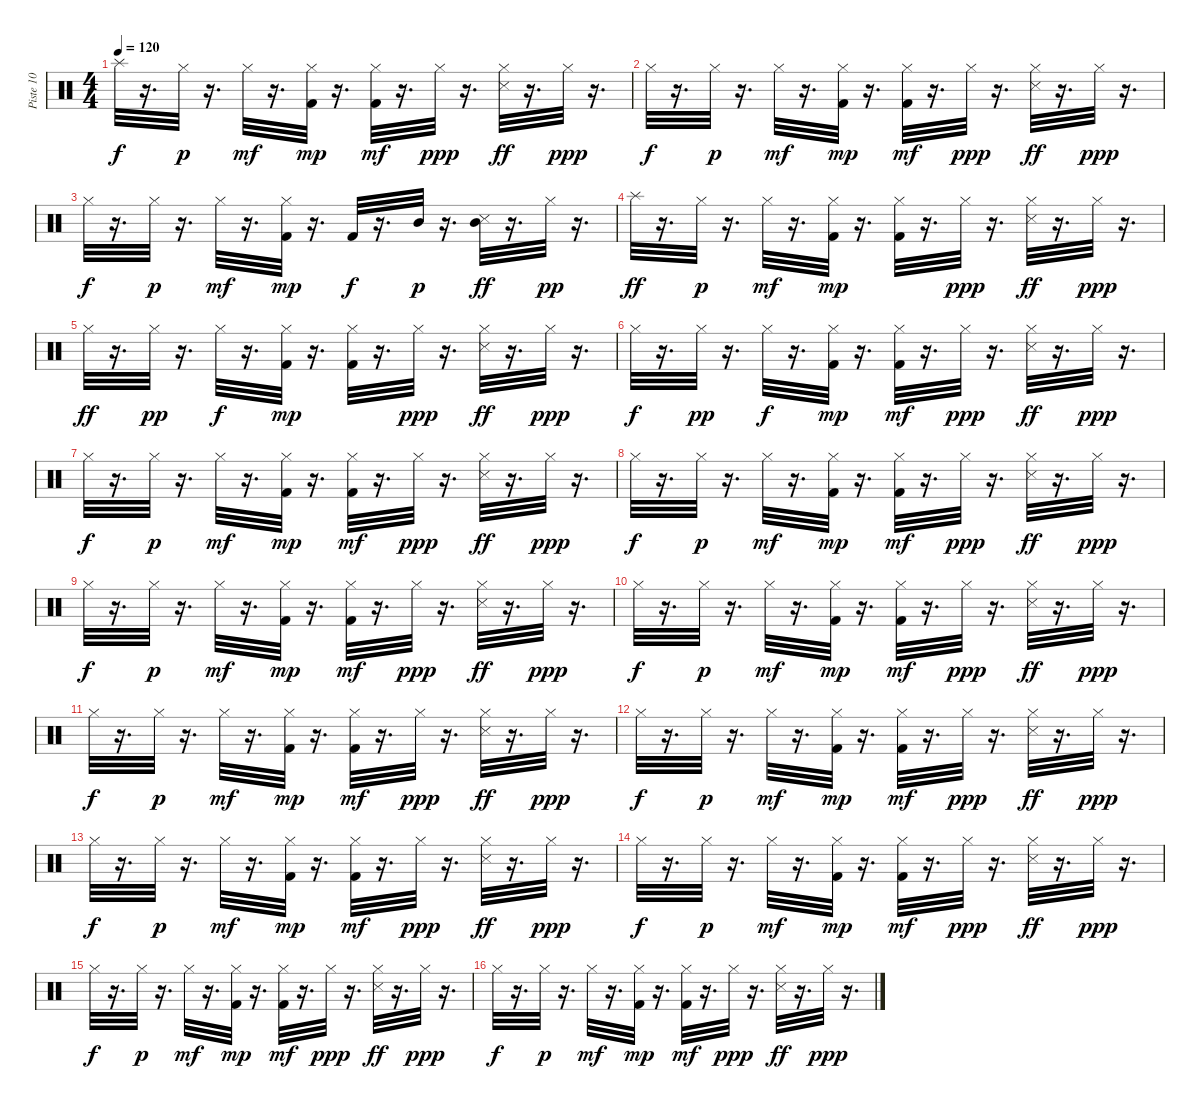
\track ("Piste 10" "Piste 10") {instrument percussion}
\staff {score}
\articulation defaults
\ts (4 4)
\tempo 120
\clef neutral
\ks c "Splash (hit)".32{dy f}
r.16{d} "Hi-Hat (closed)".32{dy p} r.16{d} "Hi-Hat (closed)".32{dy mf} r.16{d} ("Hi-Hat (closed)" "Kick (hit) 2").32{dy mp} r.16{d} ("Hi-Hat (closed)" "Kick (hit) 2").32{dy mf} r.16{d} "Hi-Hat (closed)".32{dy ppp} r.16{d} ("Hi-Hat (closed)" "Snare (side stick) 3").32{dy ff} r.16{d} "Hi-Hat (closed)".32{dy ppp} r.16{d} |
"Hi-Hat (closed)".32{dy f} r.16{d} "Hi-Hat (closed)".32{dy p} r.16{d} "Hi-Hat (closed)".32{dy mf} r.16{d} ("Hi-Hat (closed)" "Kick (hit) 2").32{dy mp} r.16{d} ("Hi-Hat (closed)" "Kick (hit) 2").32{dy mf} r.16{d} "Hi-Hat (closed)".32{dy ppp} r.16{d} ("Hi-Hat (closed)" "Snare (side stick) 3").32{dy ff} r.16{d} "Hi-Hat (closed)".32{dy ppp} r.16{d} |
"Hi-Hat (closed)".32{dy f} r.16{d} "Hi-Hat (closed)".32{dy p} r.16{d} "Hi-Hat (closed)".32{dy mf} r.16{d} ("Hi-Hat (closed)" "Kick (hit) 2").32{dy mp} r.16{d} "Kick (hit) 2".32{dy f} r.16{d} "Mid Tom (hit)".32{dy p} r.16{d} ("Snare (side stick) 3" "Mid Tom (hit)").32{dy ff} r.16{d} "Hi-Hat (closed)".32{dy pp} r.16{d} |
"Splash (hit)".32{dy ff} r.16{d} "Hi-Hat (closed)".32{dy p} r.16{d} "Hi-Hat (closed)".32{dy mf} r.16{d} ("Hi-Hat (closed)" "Kick (hit) 2").32{dy mp} r.16{d} ("Hi-Hat (closed)" "Kick (hit) 2").32 r.16{d} "Hi-Hat (closed)".32{dy ppp} r.16{d} ("Hi-Hat (closed)" "Snare (side stick) 3").32{dy ff} r.16{d} "Hi-Hat (closed)".32{dy ppp} r.16{d} |
"Hi-Hat (closed)".32{dy ff} r.16{d} "Hi-Hat (closed)".32{dy pp} r.16{d} "Hi-Hat (closed)".32{dy f} r.16{d} ("Hi-Hat (closed)" "Kick (hit) 2").32{dy mp} r.16{d} ("Hi-Hat (closed)" "Kick (hit) 2").32 r.16{d} "Hi-Hat (closed)".32{dy ppp} r.16{d} ("Hi-Hat (closed)" "Snare (side stick) 3").32{dy ff} r.16{d} "Hi-Hat (closed)".32{dy ppp} r.16{d} |
"Hi-Hat (closed)".32{dy f} r.16{d} "Hi-Hat (closed)".32{dy pp} r.16{d} "Hi-Hat (closed)".32{dy f} r.16{d} ("Hi-Hat (closed)" "Kick (hit) 2").32{dy mp} r.16{d} ("Hi-Hat (closed)" "Kick (hit) 2").32{dy mf} r.16{d} "Hi-Hat (closed)".32{dy ppp} r.16{d} ("Hi-Hat (closed)" "Snare (side stick) 3").32{dy ff} r.16{d} "Hi-Hat (closed)".32{dy ppp} r.16{d} |
"Hi-Hat (closed)".32{dy f} r.16{d} "Hi-Hat (closed)".32{dy p} r.16{d} "Hi-Hat (closed)".32{dy mf} r.16{d} ("Hi-Hat (closed)" "Kick (hit) 2").32{dy mp} r.16{d} ("Hi-Hat (closed)" "Kick (hit) 2").32{dy mf} r.16{d} "Hi-Hat (closed)".32{dy ppp} r.16{d} ("Hi-Hat (closed)" "Snare (side stick) 3").32{dy ff} r.16{d} "Hi-Hat (closed)".32{dy ppp} r.16{d} |
"Hi-Hat (closed)".32{dy f} r.16{d} "Hi-Hat (closed)".32{dy p} r.16{d} "Hi-Hat (closed)".32{dy mf} r.16{d} ("Hi-Hat (closed)" "Kick (hit) 2").32{dy mp} r.16{d} ("Hi-Hat (closed)" "Kick (hit) 2").32{dy mf} r.16{d} "Hi-Hat (closed)".32{dy ppp} r.16{d} ("Hi-Hat (closed)" "Snare (side stick) 3").32{dy ff} r.16{d} "Hi-Hat (closed)".32{dy ppp} r.16{d} |
"Hi-Hat (closed)".32{dy f} r.16{d} "Hi-Hat (closed)".32{dy p} r.16{d} "Hi-Hat (closed)".32{dy mf} r.16{d} ("Hi-Hat (closed)" "Kick (hit) 2").32{dy mp} r.16{d} ("Hi-Hat (closed)" "Kick (hit) 2").32{dy mf} r.16{d} "Hi-Hat (closed)".32{dy ppp} r.16{d} ("Hi-Hat (closed)" "Snare (side stick) 3").32{dy ff} r.16{d} "Hi-Hat (closed)".32{dy ppp} r.16{d} |
"Hi-Hat (closed)".32{dy f} r.16{d} "Hi-Hat (closed)".32{dy p} r.16{d} "Hi-Hat (closed)".32{dy mf} r.16{d} ("Hi-Hat (closed)" "Kick (hit) 2").32{dy mp} r.16{d} ("Hi-Hat (closed)" "Kick (hit) 2").32{dy mf} r.16{d} "Hi-Hat (closed)".32{dy ppp} r.16{d} ("Hi-Hat (closed)" "Snare (side stick) 3").32{dy ff} r.16{d} "Hi-Hat (closed)".32{dy ppp} r.16{d} |
"Hi-Hat (closed)".32{dy f} r.16{d} "Hi-Hat (closed)".32{dy p} r.16{d} "Hi-Hat (closed)".32{dy mf} r.16{d} ("Hi-Hat (closed)" "Kick (hit) 2").32{dy mp} r.16{d} ("Hi-Hat (closed)" "Kick (hit) 2").32{dy mf} r.16{d} "Hi-Hat (closed)".32{dy ppp} r.16{d} ("Hi-Hat (closed)" "Snare (side stick) 3").32{dy ff} r.16{d} "Hi-Hat (closed)".32{dy ppp} r.16{d} |
"Hi-Hat (closed)".32{dy f} r.16{d} "Hi-Hat (closed)".32{dy p} r.16{d} "Hi-Hat (closed)".32{dy mf} r.16{d} ("Hi-Hat (closed)" "Kick (hit) 2").32{dy mp} r.16{d} ("Hi-Hat (closed)" "Kick (hit) 2").32{dy mf} r.16{d} "Hi-Hat (closed)".32{dy ppp} r.16{d} ("Hi-Hat (closed)" "Snare (side stick) 3").32{dy ff} r.16{d} "Hi-Hat (closed)".32{dy ppp} r.16{d} |
"Hi-Hat (closed)".32{dy f} r.16{d} "Hi-Hat (closed)".32{dy p} r.16{d} "Hi-Hat (closed)".32{dy mf} r.16{d} ("Hi-Hat (closed)" "Kick (hit) 2").32{dy mp} r.16{d} ("Hi-Hat (closed)" "Kick (hit) 2").32{dy mf} r.16{d} "Hi-Hat (closed)".32{dy ppp} r.16{d} ("Hi-Hat (closed)" "Snare (side stick) 3").32{dy ff} r.16{d} "Hi-Hat (closed)".32{dy ppp} r.16{d} |
"Hi-Hat (closed)".32{dy f} r.16{d} "Hi-Hat (closed)".32{dy p} r.16{d} "Hi-Hat (closed)".32{dy mf} r.16{d} ("Hi-Hat (closed)" "Kick (hit) 2").32{dy mp} r.16{d} ("Hi-Hat (closed)" "Kick (hit) 2").32{dy mf} r.16{d} "Hi-Hat (closed)".32{dy ppp} r.16{d} ("Hi-Hat (closed)" "Snare (side stick) 3").32{dy ff} r.16{d} "Hi-Hat (closed)".32{dy ppp} r.16{d} |
"Hi-Hat (closed)".32{dy f} r.16{d} "Hi-Hat (closed)".32{dy p} r.16{d} "Hi-Hat (closed)".32{dy mf} r.16{d} ("Hi-Hat (closed)" "Kick (hit) 2").32{dy mp} r.16{d} ("Hi-Hat (closed)" "Kick (hit) 2").32{dy mf} r.16{d} "Hi-Hat (closed)".32{dy ppp} r.16{d} ("Hi-Hat (closed)" "Snare (side stick) 3").32{dy ff} r.16{d} "Hi-Hat (closed)".32{dy ppp} r.16{d} |
"Hi-Hat (closed)".32{dy f} r.16{d} "Hi-Hat (closed)".32{dy p} r.16{d} "Hi-Hat (closed)".32{dy mf} r.16{d} ("Hi-Hat (closed)" "Kick (hit) 2").32{dy mp} r.16{d} ("Hi-Hat (closed)" "Kick (hit) 2").32{dy mf} r.16{d} "Hi-Hat (closed)".32{dy ppp} r.16{d} ("Hi-Hat (closed)" "Snare (side stick) 3").32{dy ff} r.16{d} "Hi-Hat (closed)".32{dy ppp} r.16{d}
